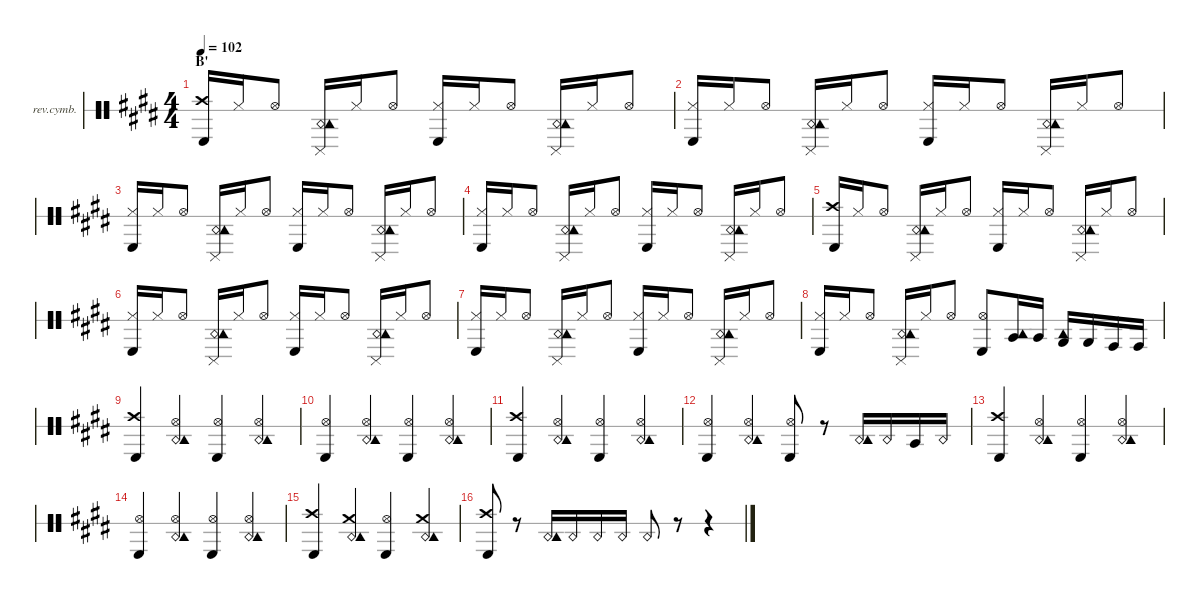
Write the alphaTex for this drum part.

\defaultSystemsLayout 4
\hideDynamics
\bracketExtendMode nobrackets
\firstSystemTrackNameOrientation horizontal
\otherSystemsTrackNameOrientation horizontal
\track ("Reverse Cymbal" "rev.cymb.") {defaultSystemsLayout 4 instrument percussion}
\staff {score 1}
\articulation defaults
\ts (4 4)
\section ("" "B'")
\tempo 102
\clef neutral
\ks e
("Kick (hit) 2"{acc forcenatural} "Crash high (hit)"{acc forcenatural}).16{dy f beam Up} "Hi-Hat (closed)"{acc forcenatural}.16{beam Up} "Hi-Hat (open)"{acc forcenatural}.8{beam Up} ("Snare (rim shot)"{acc forcenatural} "Pedal Hi-Hat (hit)"{acc forcenatural} "Tambourine (hit)"{acc forcenatural}).16{beam Up} "Hi-Hat (closed)"{acc forcenatural}.16{beam Up} "Hi-Hat (open)"{acc forcenatural}.8{beam Up} ("Hi-Hat (closed)"{acc forcenatural} "Kick (hit) 2"{acc forcenatural}).16{beam Up} "Hi-Hat (closed)"{acc forcenatural}.16{beam Up} "Hi-Hat (open)"{acc forcenatural}.8{beam Up} ("Snare (rim shot)"{acc forcenatural} "Pedal Hi-Hat (hit)"{acc forcenatural} "Tambourine (hit)"{acc forcenatural}).16{beam Up} "Hi-Hat (closed)"{acc forcenatural}.16{beam Up} "Hi-Hat (open)"{acc forcenatural}.8{beam Up} |
("Hi-Hat (closed)"{acc forcenatural} "Kick (hit) 2"{acc forcenatural}).16{beam Up} "Hi-Hat (closed)"{acc forcenatural}.16{beam Up} "Hi-Hat (open)"{acc forcenatural}.8{beam Up} ("Snare (rim shot)"{acc forcenatural} "Pedal Hi-Hat (hit)"{acc forcenatural} "Tambourine (hit)"{acc forcenatural}).16{beam Up} "Hi-Hat (closed)"{acc forcenatural}.16{beam Up} "Hi-Hat (open)"{acc forcenatural}.8{beam Up} ("Hi-Hat (closed)"{acc forcenatural} "Kick (hit) 2"{acc forcenatural}).16{beam Up} "Hi-Hat (closed)"{acc forcenatural}.16{beam Up} "Hi-Hat (open)"{acc forcenatural}.8{beam Up} ("Snare (rim shot)"{acc forcenatural} "Pedal Hi-Hat (hit)"{acc forcenatural} "Tambourine (hit)"{acc forcenatural}).16{beam Up} "Hi-Hat (closed)"{acc forcenatural}.16{beam Up} "Hi-Hat (open)"{acc forcenatural}.8{beam Up} |
("Hi-Hat (closed)"{acc forcenatural} "Kick (hit) 2"{acc forcenatural}).16{beam Up} "Hi-Hat (closed)"{acc forcenatural}.16{beam Up} "Hi-Hat (open)"{acc forcenatural}.8{beam Up} ("Snare (rim shot)"{acc forcenatural} "Pedal Hi-Hat (hit)"{acc forcenatural} "Tambourine (hit)"{acc forcenatural}).16{beam Up} "Hi-Hat (closed)"{acc forcenatural}.16{beam Up} "Hi-Hat (open)"{acc forcenatural}.8{beam Up} ("Hi-Hat (closed)"{acc forcenatural} "Kick (hit) 2"{acc forcenatural}).16{beam Up} "Hi-Hat (closed)"{acc forcenatural}.16{beam Up} "Hi-Hat (open)"{acc forcenatural}.8{beam Up} ("Snare (rim shot)"{acc forcenatural} "Pedal Hi-Hat (hit)"{acc forcenatural} "Tambourine (hit)"{acc forcenatural}).16{beam Up} "Hi-Hat (closed)"{acc forcenatural}.16{beam Up} "Hi-Hat (open)"{acc forcenatural}.8{beam Up} |
("Hi-Hat (closed)"{acc forcenatural} "Kick (hit) 2"{acc forcenatural}).16{beam Up} "Hi-Hat (closed)"{acc forcenatural}.16{beam Up} "Hi-Hat (open)"{acc forcenatural}.8{beam Up} ("Snare (rim shot)"{acc forcenatural} "Pedal Hi-Hat (hit)"{acc forcenatural} "Tambourine (hit)"{acc forcenatural}).16{beam Up} "Hi-Hat (closed)"{acc forcenatural}.16{beam Up} "Hi-Hat (open)"{acc forcenatural}.8{beam Up} ("Hi-Hat (closed)"{acc forcenatural} "Kick (hit) 2"{acc forcenatural}).16{beam Up} "Hi-Hat (closed)"{acc forcenatural}.16{beam Up} "Hi-Hat (open)"{acc forcenatural}.8{beam Up} ("Snare (rim shot)"{acc forcenatural} "Pedal Hi-Hat (hit)"{acc forcenatural} "Tambourine (hit)"{acc forcenatural}).16{beam Up} "Hi-Hat (closed)"{acc forcenatural}.16{beam Up} "Hi-Hat (open)"{acc forcenatural}.8{beam Up} |
("Kick (hit) 2"{acc forcenatural} "Crash high (hit)"{acc forcenatural}).16{beam Up} "Hi-Hat (closed)"{acc forcenatural}.16{beam Up} "Hi-Hat (open)"{acc forcenatural}.8{beam Up} ("Snare (rim shot)"{acc forcenatural} "Pedal Hi-Hat (hit)"{acc forcenatural} "Tambourine (hit)"{acc forcenatural}).16{beam Up} "Hi-Hat (closed)"{acc forcenatural}.16{beam Up} "Hi-Hat (open)"{acc forcenatural}.8{beam Up} ("Hi-Hat (closed)"{acc forcenatural} "Kick (hit) 2"{acc forcenatural}).16{beam Up} "Hi-Hat (closed)"{acc forcenatural}.16{beam Up} "Hi-Hat (open)"{acc forcenatural}.8{beam Up} ("Snare (rim shot)"{acc forcenatural} "Pedal Hi-Hat (hit)"{acc forcenatural} "Tambourine (hit)"{acc forcenatural}).16{beam Up} "Hi-Hat (closed)"{acc forcenatural}.16{beam Up} "Hi-Hat (open)"{acc forcenatural}.8{beam Up} |
("Hi-Hat (closed)"{acc forcenatural} "Kick (hit) 2"{acc forcenatural}).16{beam Up} "Hi-Hat (closed)"{acc forcenatural}.16{beam Up} "Hi-Hat (open)"{acc forcenatural}.8{beam Up} ("Snare (rim shot)"{acc forcenatural} "Pedal Hi-Hat (hit)"{acc forcenatural} "Tambourine (hit)"{acc forcenatural}).16{beam Up} "Hi-Hat (closed)"{acc forcenatural}.16{beam Up} "Hi-Hat (open)"{acc forcenatural}.8{beam Up} ("Hi-Hat (closed)"{acc forcenatural} "Kick (hit) 2"{acc forcenatural}).16{beam Up} "Hi-Hat (closed)"{acc forcenatural}.16{beam Up} "Hi-Hat (open)"{acc forcenatural}.8{beam Up} ("Snare (rim shot)"{acc forcenatural} "Pedal Hi-Hat (hit)"{acc forcenatural} "Tambourine (hit)"{acc forcenatural}).16{beam Up} "Hi-Hat (closed)"{acc forcenatural}.16{beam Up} "Hi-Hat (open)"{acc forcenatural}.8{beam Up} |
("Hi-Hat (closed)"{acc forcenatural} "Kick (hit) 2"{acc forcenatural}).16{beam Up} "Hi-Hat (closed)"{acc forcenatural}.16{beam Up} "Hi-Hat (open)"{acc forcenatural}.8{beam Up} ("Snare (rim shot)"{acc forcenatural} "Pedal Hi-Hat (hit)"{acc forcenatural} "Tambourine (hit)"{acc forcenatural}).16{beam Up} "Hi-Hat (closed)"{acc forcenatural}.16{beam Up} "Hi-Hat (open)"{acc forcenatural}.8{beam Up} ("Hi-Hat (closed)"{acc forcenatural} "Kick (hit) 2"{acc forcenatural}).16{beam Up} "Hi-Hat (closed)"{acc forcenatural}.16{beam Up} "Hi-Hat (open)"{acc forcenatural}.8{beam Up} ("Snare (rim shot)"{acc forcenatural} "Pedal Hi-Hat (hit)"{acc forcenatural} "Tambourine (hit)"{acc forcenatural}).16{beam Up} "Hi-Hat (closed)"{acc forcenatural}.16{beam Up} "Hi-Hat (open)"{acc forcenatural}.8{beam Up} |
("Hi-Hat (closed)"{acc forcenatural} "Kick (hit) 2"{acc forcenatural}).16{beam Up} "Hi-Hat (closed)"{acc forcenatural}.16{beam Up} "Hi-Hat (open)"{acc forcenatural}.8{beam Up} ("Snare (rim shot)"{acc forcenatural} "Pedal Hi-Hat (hit)"{acc forcenatural} "Tambourine (hit)"{acc forcenatural}).16{beam Up} "Hi-Hat (closed)"{acc forcenatural}.16{beam Up} "Hi-Hat (open)"{acc forcenatural}.8{beam Up} ("Hi-Hat (open)"{acc forcenatural} "Kick (hit) 2"{acc forcenatural}).8{beam Up} ("Mid Tom (hit)"{acc forcenatural} "Tambourine (hit)"{acc forcenatural}).16{beam Up} "Mid Tom (hit)"{acc forcenatural}.16{beam Up} ("Low Tom (hit)"{acc forcenatural} "Tambourine (hit)"{acc forcenatural}).16{beam Up} "Low Tom (hit)"{acc forcenatural}.16{beam Up} "Very Low Tom (hit)"{acc forcenatural}.16{beam Up} "Very Low Tom (hit)"{acc forcenatural}.16{beam Up} |
("Crash high (hit)"{acc forcenatural} "Kick (hit) 2"{acc forcenatural}).4{beam Up} ("Hi-Hat (open)"{acc forcenatural} "Snare (rim shot)"{acc forcenatural} "Tambourine (hit)"{acc forcenatural}).4{beam Up} ("Hi-Hat (open)"{acc forcenatural} "Kick (hit) 2"{acc forcenatural}).4{beam Up} ("Hi-Hat (open)"{acc forcenatural} "Snare (rim shot)"{acc forcenatural} "Tambourine (hit)"{acc forcenatural}).4{beam Up} |
("Hi-Hat (open)"{acc forcenatural} "Kick (hit) 2"{acc forcenatural}).4{beam Up} ("Hi-Hat (open)"{acc forcenatural} "Snare (rim shot)"{acc forcenatural} "Tambourine (hit)"{acc forcenatural}).4{beam Up} ("Hi-Hat (open)"{acc forcenatural} "Kick (hit) 2"{acc forcenatural}).4{beam Up} ("Hi-Hat (open)"{acc forcenatural} "Snare (rim shot)"{acc forcenatural} "Tambourine (hit)"{acc forcenatural}).4{beam Up} |
("Crash high (hit)"{acc forcenatural} "Kick (hit) 2"{acc forcenatural}).4{beam Up} ("Hi-Hat (open)"{acc forcenatural} "Snare (rim shot)"{acc forcenatural} "Tambourine (hit)"{acc forcenatural}).4{beam Up} ("Hi-Hat (open)"{acc forcenatural} "Kick (hit) 2"{acc forcenatural}).4{beam Up} ("Hi-Hat (open)"{acc forcenatural} "Snare (rim shot)"{acc forcenatural} "Tambourine (hit)"{acc forcenatural}).4{beam Up} |
("Hi-Hat (open)"{acc forcenatural} "Kick (hit) 2"{acc forcenatural}).4{beam Up} ("Hi-Hat (open)"{acc forcenatural} "Snare (rim shot)"{acc forcenatural} "Tambourine (hit)"{acc forcenatural}).4{beam Up} ("Hi-Hat (open)"{acc forcenatural} "Kick (hit) 2"{acc forcenatural}).8{beam Up} r.8{beam Up} ("Snare (rim shot)"{acc forcenatural} "Tambourine (hit)"{acc forcenatural}).16{beam Up} "Snare (rim shot)"{acc forcenatural}.16{beam Up} "Mid Tom (hit)"{acc forcenatural}.16{beam Up} "Snare (rim shot)"{acc forcenatural}.16{beam Up} |
("Crash high (hit)"{acc forcenatural} "Kick (hit) 2"{acc forcenatural}).4{beam Up} ("Hi-Hat (open)"{acc forcenatural} "Snare (rim shot)"{acc forcenatural} "Tambourine (hit)"{acc forcenatural}).4{beam Up} ("Hi-Hat (open)"{acc forcenatural} "Kick (hit) 2"{acc forcenatural}).4{beam Up} ("Hi-Hat (open)"{acc forcenatural} "Snare (rim shot)"{acc forcenatural} "Tambourine (hit)"{acc forcenatural}).4{beam Up} |
("Hi-Hat (open)"{acc forcenatural} "Kick (hit) 2"{acc forcenatural}).4{beam Up} ("Hi-Hat (open)"{acc forcenatural} "Snare (rim shot)"{acc forcenatural} "Tambourine (hit)"{acc forcenatural}).4{beam Up} ("Hi-Hat (open)"{acc forcenatural} "Kick (hit) 2"{acc forcenatural}).4{beam Up} ("Hi-Hat (open)"{acc forcenatural} "Snare (rim shot)"{acc forcenatural} "Tambourine (hit)"{acc forcenatural}).4{beam Up} |
("Crash high (hit)"{acc forcenatural} "Kick (hit) 2"{acc forcenatural}).4{beam Up} ("Crash medium (hit)"{acc forcenatural} "Snare (rim shot)"{acc forcenatural} "Tambourine (hit)"{acc forcenatural}).4{beam Up} ("Hi-Hat (open)"{acc forcenatural} "Kick (hit) 2"{acc forcenatural}).4{beam Up} ("Crash medium (hit)"{acc forcenatural} "Snare (rim shot)"{acc forcenatural} "Tambourine (hit)"{acc forcenatural}).4{beam Up} |
("Crash high (hit)"{acc forcenatural} "Kick (hit) 2"{acc forcenatural}).8{beam Up} r.8{beam Up} ("Snare (rim shot)"{acc forcenatural} "Tambourine (hit)"{acc forcenatural}).16{beam Up} "Snare (rim shot)"{acc forcenatural}.16{beam Up} "Snare (rim shot)"{acc forcenatural}.16{beam Up} "Snare (rim shot)"{acc forcenatural}.16{beam Up} "Snare (rim shot)"{acc forcenatural}.8{beam Up} r.8{beam Up} r.4{beam Up}
